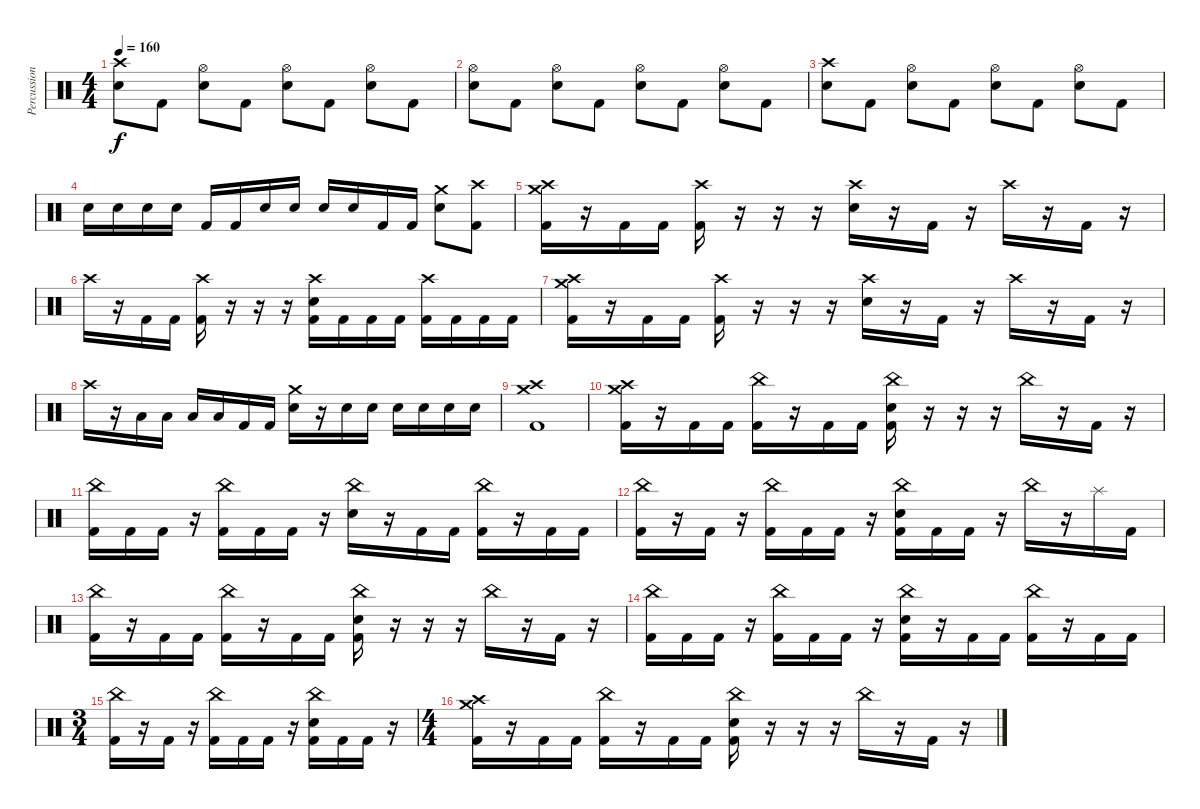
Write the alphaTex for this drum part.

\track ("Percussion" "Percussion") {instrument percussion}
\staff {score}
\articulation defaults
\ts (4 4)
\tempo 160
\clef neutral
\ks c
("Crash high (hit)" "Electric Snare (hit)").8{dy f} "Kick (hit) 2".8 ("Hi-Hat (open)" "Electric Snare (hit)").8 "Kick (hit) 2".8 ("Hi-Hat (open)" "Electric Snare (hit)").8 "Kick (hit) 2".8 ("Hi-Hat (open)" "Electric Snare (hit)").8 "Kick (hit) 2".8 |
("Hi-Hat (open)" "Electric Snare (hit)").8 "Kick (hit) 2".8 ("Hi-Hat (open)" "Electric Snare (hit)").8 "Kick (hit) 2".8 ("Hi-Hat (open)" "Electric Snare (hit)").8 "Kick (hit) 2".8 ("Hi-Hat (open)" "Electric Snare (hit)").8 "Kick (hit) 2".8 |
("Crash high (hit)" "Electric Snare (hit)").8 "Kick (hit) 2".8 ("Hi-Hat (open)" "Electric Snare (hit)").8 "Kick (hit) 2".8 ("Hi-Hat (open)" "Electric Snare (hit)").8 "Kick (hit) 2".8 ("Hi-Hat (open)" "Electric Snare (hit)").8 "Kick (hit) 2".8 |
"Electric Snare (hit)".16 "Electric Snare (hit)".16 "Electric Snare (hit)".16 "Electric Snare (hit)".16 "Kick (hit) 2".16 "Kick (hit) 2".16 "Electric Snare (hit)".16 "Electric Snare (hit)".16 "Electric Snare (hit)".16 "Electric Snare (hit)".16 "Kick (hit) 2".16 "Kick (hit) 2".16 ("Crash medium (hit)" "Electric Snare (hit)").8 ("Crash high (hit)" "Kick (hit) 2").8 |
("Crash medium (hit)" "Crash high (hit)" "Kick (hit) 2").16 r.16 "Kick (hit) 2".16 "Kick (hit) 2".16 ("Crash high (hit)" "Kick (hit) 2").16 r.16 r.16 r.16 ("Crash high (hit)" "Electric Snare (hit)").16 r.16 "Kick (hit) 2".16 r.16 "Crash high (hit)".16 r.16 "Kick (hit) 2".16 r.16 |
"Crash high (hit)".16 r.16 "Kick (hit) 2".16 "Kick (hit) 2".16 ("Crash high (hit)" "Kick (hit) 2").16 r.16 r.16 r.16 ("Crash high (hit)" "Electric Snare (hit)" "Kick (hit) 2").16 "Kick (hit) 2".16 "Kick (hit) 2".16 "Kick (hit) 2".16 ("Crash high (hit)" "Kick (hit) 2").16 "Kick (hit) 2".16 "Kick (hit) 2".16 "Kick (hit) 2".16 |
("Crash medium (hit)" "Crash high (hit)" "Kick (hit) 2").16 r.16 "Kick (hit) 2".16 "Kick (hit) 2".16 ("Crash high (hit)" "Kick (hit) 2").16 r.16 r.16 r.16 ("Crash high (hit)" "Electric Snare (hit)").16 r.16 "Kick (hit) 2".16 r.16 "Crash high (hit)".16 r.16 "Kick (hit) 2".16 r.16 |
"Crash high (hit)".16 r.16 "Low Tom (hit)".16 "Low Tom (hit)".16 "Low Floor Tom (hit)".16 "Low Floor Tom (hit)".16 "Kick (hit) 2".16 "Kick (hit) 2".16 ("Crash medium (hit)" "Electric Snare (hit)").16 r.16 "Electric Snare (hit)".16 "Electric Snare (hit)".16 "Electric Snare (hit)".16 "Electric Snare (hit)".16 "Electric Snare (hit)".16 "Electric Snare (hit)".16 |
("Crash medium (hit)" "Crash high (hit)" "Kick (hit) 2").1 |
("Crash medium (hit)" "Crash high (hit)" "Kick (hit) 2").16 r.16 "Kick (hit) 2".16 "Kick (hit) 2".16 ("China (hit)" "Kick (hit) 2").16 r.16 "Kick (hit) 2".16 "Kick (hit) 2".16 ("China (hit)" "Electric Snare (hit)" "Kick (hit) 2").16 r.16 r.16 r.16 "China (hit)".16 r.16 "Kick (hit) 2".16 r.16 |
("China (hit)" "Kick (hit) 2").16 "Kick (hit) 2".16 "Kick (hit) 2".16 r.16 ("China (hit)" "Kick (hit) 2").16 "Kick (hit) 2".16 "Kick (hit) 2".16 r.16 ("China (hit)" "Electric Snare (hit)").16 r.16 "Kick (hit) 2".16 "Kick (hit) 2".16 ("China (hit)" "Kick (hit) 2").16 r.16 "Kick (hit) 2".16 "Kick (hit) 2".16 |
("China (hit)" "Kick (hit) 2").16 r.16 "Kick (hit) 2".16 r.16 ("China (hit)" "Kick (hit) 2").16 "Kick (hit) 2".16 "Kick (hit) 2".16 r.16 ("China (hit)" "Electric Snare (hit)" "Kick (hit) 2").16 "Kick (hit) 2".16 "Kick (hit) 2".16 r.16 "China (hit)".16 r.16 "Splash (hit)".16 "Kick (hit) 2".16 |
("China (hit)" "Kick (hit) 2").16 r.16 "Kick (hit) 2".16 "Kick (hit) 2".16 ("China (hit)" "Kick (hit) 2").16 r.16 "Kick (hit) 2".16 "Kick (hit) 2".16 ("China (hit)" "Electric Snare (hit)" "Kick (hit) 2").16 r.16 r.16 r.16 "China (hit)".16 r.16 "Kick (hit) 2".16 r.16 |
("China (hit)" "Kick (hit) 2").16 "Kick (hit) 2".16 "Kick (hit) 2".16 r.16 ("China (hit)" "Kick (hit) 2").16 "Kick (hit) 2".16 "Kick (hit) 2".16 r.16 ("China (hit)" "Electric Snare (hit)" "Kick (hit) 2").16 r.16 "Kick (hit) 2".16 "Kick (hit) 2".16 ("China (hit)" "Kick (hit) 2").16 r.16 "Kick (hit) 2".16 "Kick (hit) 2".16 |
\ts (3 4)
("China (hit)" "Kick (hit) 2").16 r.16 "Kick (hit) 2".16 r.16 ("China (hit)" "Kick (hit) 2").16 "Kick (hit) 2".16 "Kick (hit) 2".16 r.16 ("China (hit)" "Electric Snare (hit)" "Kick (hit) 2").16 "Kick (hit) 2".16 "Kick (hit) 2".16 r.16 |
\ts (4 4)
("Crash medium (hit)" "Crash high (hit)" "Kick (hit) 2").16 r.16 "Kick (hit) 2".16 "Kick (hit) 2".16 ("China (hit)" "Kick (hit) 2").16 r.16 "Kick (hit) 2".16 "Kick (hit) 2".16 ("China (hit)" "Electric Snare (hit)" "Kick (hit) 2").16 r.16 r.16 r.16 "China (hit)".16 r.16 "Kick (hit) 2".16 r.16
